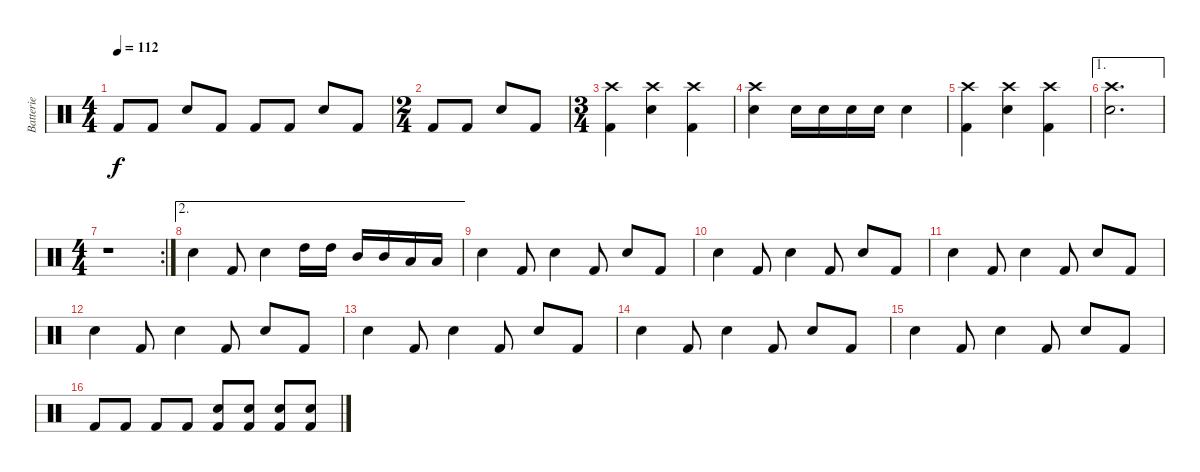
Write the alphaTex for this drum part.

\track ("Batterie" "Batterie") {instrument percussion}
\staff {score}
\articulation defaults
\ts (4 4)
\tempo 112
\clef neutral
\ks c "Kick (hit) 2".8{dy f} "Kick (hit) 2".8 "Snare (hit) 2".8 "Kick (hit) 2".8 "Kick (hit) 2".8 "Kick (hit) 2".8 "Snare (hit) 2".8 "Kick (hit) 2".8
|
\ts (2 4)
"Kick (hit) 2".8 "Kick (hit) 2".8 "Snare (hit) 2".8 "Kick (hit) 2".8 |
\ts (3 4)
("Crash high (hit)" "Kick (hit) 2").4 ("Crash high (hit)" "Snare (hit) 2").4 ("Crash high (hit)" "Kick (hit) 2").4 |
("Crash high (hit)" "Snare (hit) 2").4 "Snare (hit) 2".16 "Snare (hit) 2".16 "Snare (hit) 2".16 "Snare (hit) 2".16 "Snare (hit) 2".4 |
("Crash high (hit)" "Kick (hit) 2").4 ("Crash high (hit)" "Snare (hit) 2").4 ("Crash high (hit)" "Kick (hit) 2").4 |
\ae 1
("Crash high (hit)" "Snare (hit) 2").2{d} |
\rc 2
\ts (4 4)
r.1 |
\ae 2 "Snare (hit) 2".4 "Kick (hit) 2".8 "Snare (hit) 2".4 "High Tom (hit)".16 "High Tom (hit)".16 "Mid Tom (hit)".16 "Mid Tom (hit)".16 "Low Tom (hit)".16 "Low Tom (hit)".16
|
"Snare (hit) 2".4 "Kick (hit) 2".8 "Snare (hit) 2".4 "Kick (hit) 2".8 "Snare (hit) 2".8 "Kick (hit) 2".8 |
"Snare (hit) 2".4 "Kick (hit) 2".8 "Snare (hit) 2".4 "Kick (hit) 2".8 "Snare (hit) 2".8 "Kick (hit) 2".8 |
"Snare (hit) 2".4 "Kick (hit) 2".8 "Snare (hit) 2".4 "Kick (hit) 2".8 "Snare (hit) 2".8 "Kick (hit) 2".8 |
"Snare (hit) 2".4 "Kick (hit) 2".8 "Snare (hit) 2".4 "Kick (hit) 2".8 "Snare (hit) 2".8 "Kick (hit) 2".8 |
"Snare (hit) 2".4 "Kick (hit) 2".8 "Snare (hit) 2".4 "Kick (hit) 2".8 "Snare (hit) 2".8 "Kick (hit) 2".8 |
"Snare (hit) 2".4 "Kick (hit) 2".8 "Snare (hit) 2".4 "Kick (hit) 2".8 "Snare (hit) 2".8 "Kick (hit) 2".8 |
"Snare (hit) 2".4 "Kick (hit) 2".8 "Snare (hit) 2".4 "Kick (hit) 2".8 "Snare (hit) 2".8 "Kick (hit) 2".8 |
"Kick (hit) 2".8 "Kick (hit) 2".8 "Kick (hit) 2".8 "Kick (hit) 2".8 ("Snare (hit) 2" "Kick (hit) 2").8 ("Snare (hit) 2" "Kick (hit) 2").8 ("Snare (hit) 2" "Kick (hit) 2").8 ("Snare (hit) 2" "Kick (hit) 2").8
